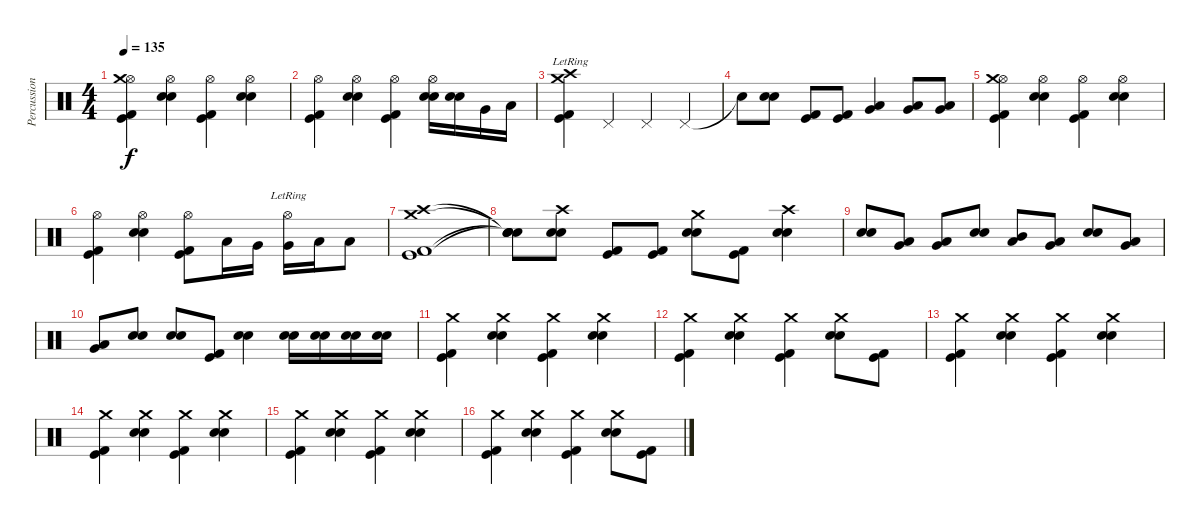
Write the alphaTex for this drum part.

\track ("Percussion" "Percussion") {instrument percussion}
\staff {score}
\articulation defaults
\ts (4 4)
\tempo 135
\clef neutral
\ks c
("Hi-Hat (open)" "Crash medium (hit)" "Kick (hit)" "Kick (hit) 2").4{dy f} ("Hi-Hat (open)" "Electric Snare (hit)" "Metronome (bell)").4 ("Hi-Hat (open)" "Kick (hit)" "Kick (hit) 2").4 ("Hi-Hat (open)" "Electric Snare (hit)" "Metronome (bell)").4 |
("Hi-Hat (open)" "Kick (hit)" "Kick (hit) 2").4 ("Hi-Hat (open)" "Electric Snare (hit)" "Metronome (bell)").4 ("Hi-Hat (open)" "Kick (hit)" "Kick (hit) 2").4 ("Hi-Hat (open)" "Electric Snare (hit)" "Metronome (bell)").16 ("Electric Snare (hit)" "Metronome (bell)").16 "Very Low Tom (hit)".16 "Low Floor Tom (hit)".16 |
("Crash high (hit)" "Crash medium (hit)"{lr} "Kick (hit)"{lr} "Kick (hit) 2"{lr}).4 "Pedal Hi-Hat (hit)".4 "Pedal Hi-Hat (hit)".4 "Pedal Hi-Hat (hit)".4 |
"Snare (hit)"{t}.8 ("Electric Snare (hit)" "Metronome (bell)").8 ("Kick (hit)" "Kick (hit) 2").8 ("Kick (hit)" "Kick (hit) 2").8 ("Low Tom (hit)" "Very Low Tom (hit)").4 ("Low Tom (hit)" "Very Low Tom (hit)").8 ("Very Low Tom (hit)" "Low Floor Tom (hit)").8 |
("Hi-Hat (open)" "Crash medium (hit)" "Kick (hit)" "Kick (hit) 2").4 ("Hi-Hat (open)" "Electric Snare (hit)" "Metronome (bell)").4 ("Hi-Hat (open)" "Kick (hit)" "Kick (hit) 2").4 ("Hi-Hat (open)" "Electric Snare (hit)" "Metronome (bell)").4 |
("Hi-Hat (open)" "Kick (hit)" "Kick (hit) 2").4 ("Hi-Hat (open)" "Electric Snare (hit)" "Metronome (bell)").4 ("Hi-Hat (open)" "Kick (hit)" "Kick (hit) 2").8 "Low Tom (hit)".16 "Very Low Tom (hit)".16 ("Hi-Hat (open)"{lr} "Very Low Tom (hit)").16 "Low Floor Tom (hit)".16 "Low Floor Tom (hit)".8 |
("Crash high (hit)" "Crash medium (hit)" "Kick (hit)" "Kick (hit) 2").1 |
("Snare (hit)"{t} "Snare (hit)"{t} "Snare (hit)"{t} "Snare (hit)"{t}).8 ("Crash high (hit)" "Electric Snare (hit)" "Metronome (bell)").8 ("Kick (hit)" "Kick (hit) 2").8 ("Kick (hit)" "Kick (hit) 2").8 ("Crash medium (hit)" "Electric Snare (hit)" "Metronome (bell)").8 ("Kick (hit)" "Kick (hit) 2").8 ("Crash high (hit)" "Electric Snare (hit)" "Metronome (bell)").4 |
("Electric Snare (hit)" "Metronome (bell)").8 ("Low Tom (hit)" "Very Low Tom (hit)").8 ("Very Low Tom (hit)" "Low Floor Tom (hit)").8 ("Electric Snare (hit)" "Metronome (bell)").8 ("Mid Tom (hit)" "Low Tom (hit)").8 ("Low Tom (hit)" "Very Low Tom (hit)").8 ("Electric Snare (hit)" "Metronome (bell)").8 ("Low Tom (hit)" "Very Low Tom (hit)").8 |
("Very Low Tom (hit)" "Low Floor Tom (hit)").8 ("Electric Snare (hit)" "Metronome (bell)").8 ("Electric Snare (hit)" "Metronome (bell)").8 ("Kick (hit)" "Kick (hit) 2").8 ("Electric Snare (hit)" "Metronome (bell)").4 ("Electric Snare (hit)" "Metronome (bell)").16 ("Electric Snare (hit)" "Metronome (bell)").16 ("Electric Snare (hit)" "Metronome (bell)").16 ("Electric Snare (hit)" "Metronome (bell)").16 |
("Crash medium (hit)" "Kick (hit)" "Kick (hit) 2").4 ("Crash medium (hit)" "Electric Snare (hit)" "Metronome (bell)").4 ("Crash medium (hit)" "Kick (hit)" "Kick (hit) 2").4 ("Crash medium (hit)" "Electric Snare (hit)" "Metronome (bell)").4 |
("Crash medium (hit)" "Kick (hit)" "Kick (hit) 2").4 ("Crash medium (hit)" "Electric Snare (hit)" "Metronome (bell)").4 ("Crash medium (hit)" "Kick (hit)" "Kick (hit) 2").4 ("Crash medium (hit)" "Electric Snare (hit)" "Metronome (bell)").8 ("Kick (hit)" "Kick (hit) 2").8 |
("Crash medium (hit)" "Kick (hit)" "Kick (hit) 2").4 ("Crash medium (hit)" "Electric Snare (hit)" "Metronome (bell)").4 ("Crash medium (hit)" "Kick (hit)" "Kick (hit) 2").4 ("Crash medium (hit)" "Electric Snare (hit)" "Metronome (bell)").4 |
("Crash medium (hit)" "Kick (hit)" "Kick (hit) 2").4 ("Crash medium (hit)" "Electric Snare (hit)" "Metronome (bell)").4 ("Crash medium (hit)" "Kick (hit)" "Kick (hit) 2").4 ("Crash medium (hit)" "Electric Snare (hit)" "Metronome (bell)").4 |
("Crash medium (hit)" "Kick (hit)" "Kick (hit) 2").4 ("Crash medium (hit)" "Electric Snare (hit)" "Metronome (bell)").4 ("Crash medium (hit)" "Kick (hit)" "Kick (hit) 2").4 ("Crash medium (hit)" "Electric Snare (hit)" "Metronome (bell)").4 |
("Crash medium (hit)" "Kick (hit)" "Kick (hit) 2").4 ("Crash medium (hit)" "Electric Snare (hit)" "Metronome (bell)").4 ("Crash medium (hit)" "Kick (hit)" "Kick (hit) 2").4 ("Crash medium (hit)" "Electric Snare (hit)" "Metronome (bell)").8 ("Kick (hit)" "Kick (hit) 2").8
